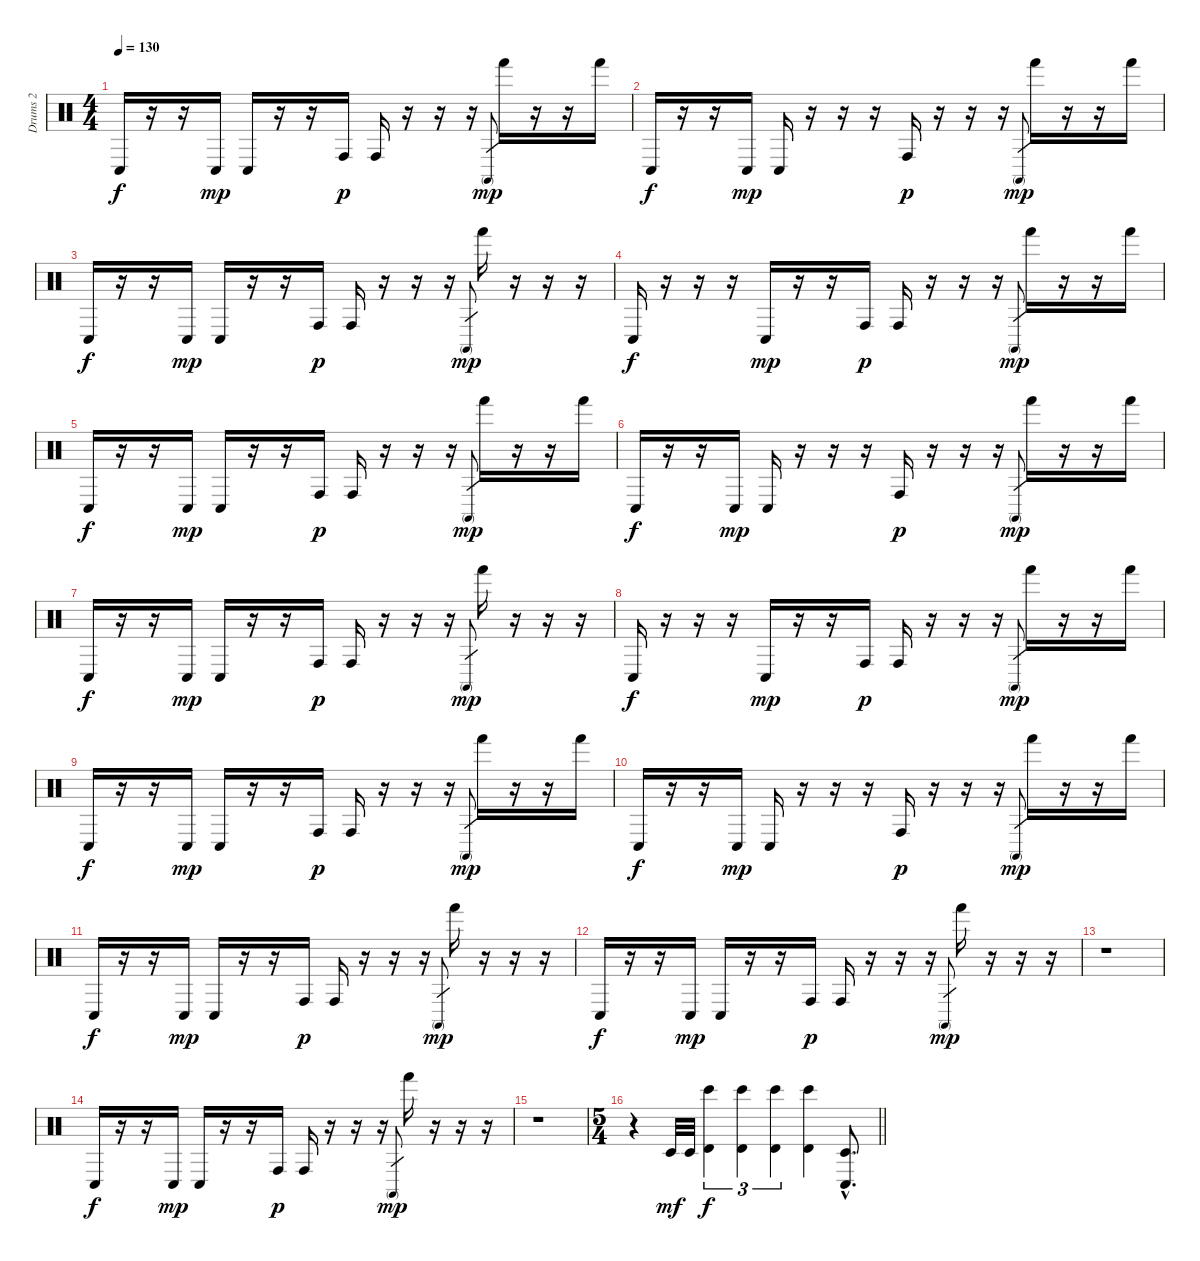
\track ("Drums 2" "Drums 2") {instrument percussion}
\staff {score}
\articulation defaults
\ts (4 4)
\tempo 130
\clef neutral
\ks c "Conga low (hit)".16{dy f}
r.16 r.16 "Conga low (hit)".16{dy mp} "Conga low (hit)".16 r.16 r.16 "Conga high (hit)".16{dy p} "Conga high (hit)".16 r.16 r.16 r.16 "Conga high (mute)".8{gr dy mp} "Hand (hit)".16 r.16 r.16 "Hand (hit)".16 |
"Conga low (hit)".16{dy f} r.16 r.16 "Conga low (hit)".16{dy mp} "Conga low (hit)".16 r.16 r.16 r.16 "Conga high (hit)".16{dy p} r.16 r.16 r.16 "Conga high (mute)".8{gr dy mp} "Hand (hit)".16 r.16 r.16 "Hand (hit)".16 |
"Conga low (hit)".16{dy f} r.16 r.16 "Conga low (hit)".16{dy mp} "Conga low (hit)".16 r.16 r.16 "Conga high (hit)".16{dy p} "Conga high (hit)".16 r.16 r.16 r.16 "Conga high (mute)".8{gr dy mp} "Hand (hit)".16 r.16 r.16 r.16 |
"Conga low (hit)".16{dy f} r.16 r.16 r.16 "Conga low (hit)".16{dy mp} r.16 r.16 "Conga high (hit)".16{dy p} "Conga high (hit)".16 r.16 r.16 r.16 "Conga high (mute)".8{gr dy mp} "Hand (hit)".16 r.16 r.16 "Hand (hit)".16 |
"Conga low (hit)".16{dy f} r.16 r.16 "Conga low (hit)".16{dy mp} "Conga low (hit)".16 r.16 r.16 "Conga high (hit)".16{dy p} "Conga high (hit)".16 r.16 r.16 r.16 "Conga high (mute)".8{gr dy mp} "Hand (hit)".16 r.16 r.16 "Hand (hit)".16 |
"Conga low (hit)".16{dy f} r.16 r.16 "Conga low (hit)".16{dy mp} "Conga low (hit)".16 r.16 r.16 r.16 "Conga high (hit)".16{dy p} r.16 r.16 r.16 "Conga high (mute)".8{gr dy mp} "Hand (hit)".16 r.16 r.16 "Hand (hit)".16 |
"Conga low (hit)".16{dy f} r.16 r.16 "Conga low (hit)".16{dy mp} "Conga low (hit)".16 r.16 r.16 "Conga high (hit)".16{dy p} "Conga high (hit)".16 r.16 r.16 r.16 "Conga high (mute)".8{gr dy mp} "Hand (hit)".16 r.16 r.16 r.16 |
"Conga low (hit)".16{dy f} r.16 r.16 r.16 "Conga low (hit)".16{dy mp} r.16 r.16 "Conga high (hit)".16{dy p} "Conga high (hit)".16 r.16 r.16 r.16 "Conga high (mute)".8{gr dy mp} "Hand (hit)".16 r.16 r.16 "Hand (hit)".16 |
"Conga low (hit)".16{dy f} r.16 r.16 "Conga low (hit)".16{dy mp} "Conga low (hit)".16 r.16 r.16 "Conga high (hit)".16{dy p} "Conga high (hit)".16 r.16 r.16 r.16 "Conga high (mute)".8{gr dy mp} "Hand (hit)".16 r.16 r.16 "Hand (hit)".16 |
"Conga low (hit)".16{dy f} r.16 r.16 "Conga low (hit)".16{dy mp} "Conga low (hit)".16 r.16 r.16 r.16 "Conga high (hit)".16{dy p} r.16 r.16 r.16 "Conga high (mute)".8{gr dy mp} "Hand (hit)".16 r.16 r.16 "Hand (hit)".16 |
"Conga low (hit)".16{dy f} r.16 r.16 "Conga low (hit)".16{dy mp} "Conga low (hit)".16 r.16 r.16 "Conga high (hit)".16{dy p} "Conga high (hit)".16 r.16 r.16 r.16 "Conga high (mute)".8{gr dy mp} "Hand (hit)".16 r.16 r.16 r.16 |
"Conga low (hit)".16{dy f} r.16 r.16 "Conga low (hit)".16{dy mp} "Conga low (hit)".16 r.16 r.16 "Conga high (hit)".16{dy p} "Conga high (hit)".16 r.16 r.16 r.16 "Conga high (mute)".8{gr dy mp} "Hand (hit)".16 r.16 r.16 r.16 |
r.1 |
"Conga low (hit)".16{dy f} r.16 r.16 "Conga low (hit)".16{dy mp} "Conga low (hit)".16 r.16 r.16 "Conga high (hit)".16{dy p} "Conga high (hit)".16 r.16 r.16 r.16 "Conga high (mute)".8{gr dy mp} "Hand (hit)".16 r.16 r.16 r.16 |
r.1 |
\ts (5 4)
\barLineRight lightlight
r.4 "Timbale low (hit)".32{dy mf} "Timbale low (hit)".32 ("Bongo High (hit)" "Timbale high (hit)").4{tu (3 2) dy f} ("Bongo High (hit)" "Timbale high (hit)").4{tu (3 2)} ("Bongo High (hit)" "Timbale high (hit)").4{tu (3 2)} ("Bongo High (hit)" "Timbale high (hit)").4 ("Conga low (hit)"{hac} "Timbale low (hit)"{hac}).8{d}
